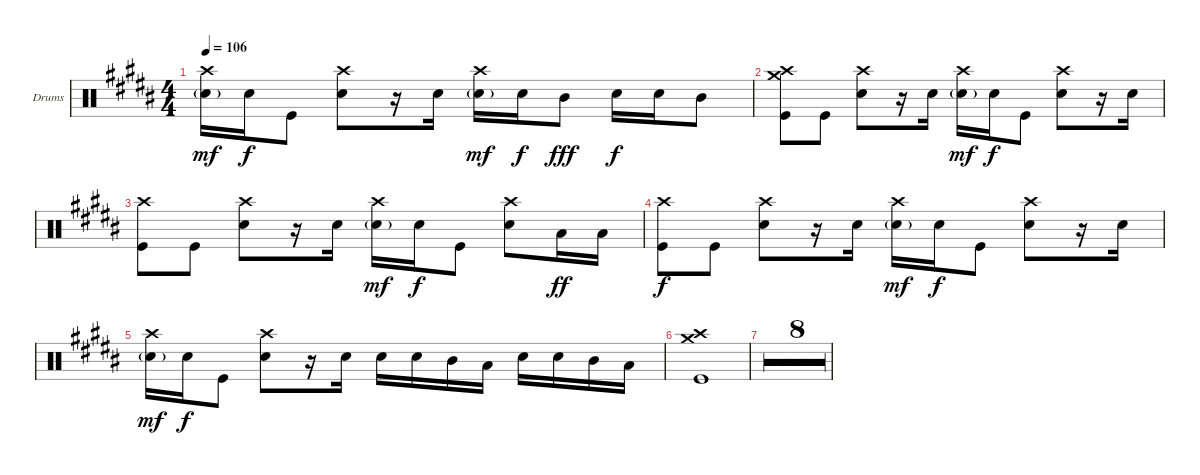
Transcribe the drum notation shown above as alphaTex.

\defaultSystemsLayout 4
\bracketExtendMode groupsimilarinstruments
\firstSystemTrackNameOrientation horizontal
\otherSystemsTrackNameOrientation horizontal
\track ("Dominic Boyce (Drums)" "Drums") {multiBarRest instrument percussion}
\staff {score}
\articulation defaults
\ts (4 4)
\tempo 106
\clef neutral
\ks b
("Snare (hit) 2"{g} "Crash high (hit)").16{dy mf} "Snare (hit) 2".16{dy f} "Kick (hit)".8 ("Snare (hit) 2" "Crash high (hit)").8 r.16 "Snare (hit) 2".16 ("Snare (hit) 2"{g} "Crash high (hit)").16{dy mf} "Snare (hit) 2".16{dy f} "Mid Tom (hit)".8{dy fff} "Snare (hit) 2".16{dy f} "Snare (hit) 2".16 "Mid Tom (hit)".8 |
("Kick (hit)" "Crash high (hit)" "Crash medium (hit)").8 "Kick (hit)".8 ("Snare (hit) 2" "Crash high (hit)").8 r.16 "Snare (hit) 2".16 ("Snare (hit) 2"{g} "Crash high (hit)").16{dy mf} "Snare (hit) 2".16{dy f} "Kick (hit)".8 ("Snare (hit) 2" "Crash high (hit)").8 r.16 "Snare (hit) 2".16 |
("Kick (hit)" "Crash high (hit)").8 "Kick (hit)".8 ("Snare (hit) 2" "Crash high (hit)").8 r.16 "Snare (hit) 2".16 ("Snare (hit) 2"{g} "Crash high (hit)").16{dy mf} "Snare (hit) 2".16{dy f} "Kick (hit)".8 ("Snare (hit) 2" "Crash high (hit)").8 "Low Tom (hit)".16{dy ff} "Low Tom (hit)".16 |
("Kick (hit)" "Crash high (hit)").8{dy f} "Kick (hit)".8 ("Snare (hit) 2" "Crash high (hit)").8 r.16 "Snare (hit) 2".16 ("Snare (hit) 2"{g} "Crash high (hit)").16{dy mf} "Snare (hit) 2".16{dy f} "Kick (hit)".8 ("Snare (hit) 2" "Crash high (hit)").8 r.16 "Snare (hit) 2".16 |
("Snare (hit) 2"{g} "Crash high (hit)").16{dy mf} "Snare (hit) 2".16{dy f} "Kick (hit)".8 ("Snare (hit) 2" "Crash high (hit)").8 r.16 "Snare (hit) 2".16 "Snare (hit) 2".16 "Snare (hit) 2".16 "Mid Tom (hit)".16 "Low Tom (hit)".16 "Snare (hit) 2".16 "Snare (hit) 2".16 "Mid Tom (hit)".16 "Low Tom (hit)".16 |
("Kick (hit)" "Crash medium (hit)" "Crash high (hit)").1 |
r.1 |
r.1 |
r.1 |
r.1 |
r.1 |
r.1 |
r.1 |
r.1
